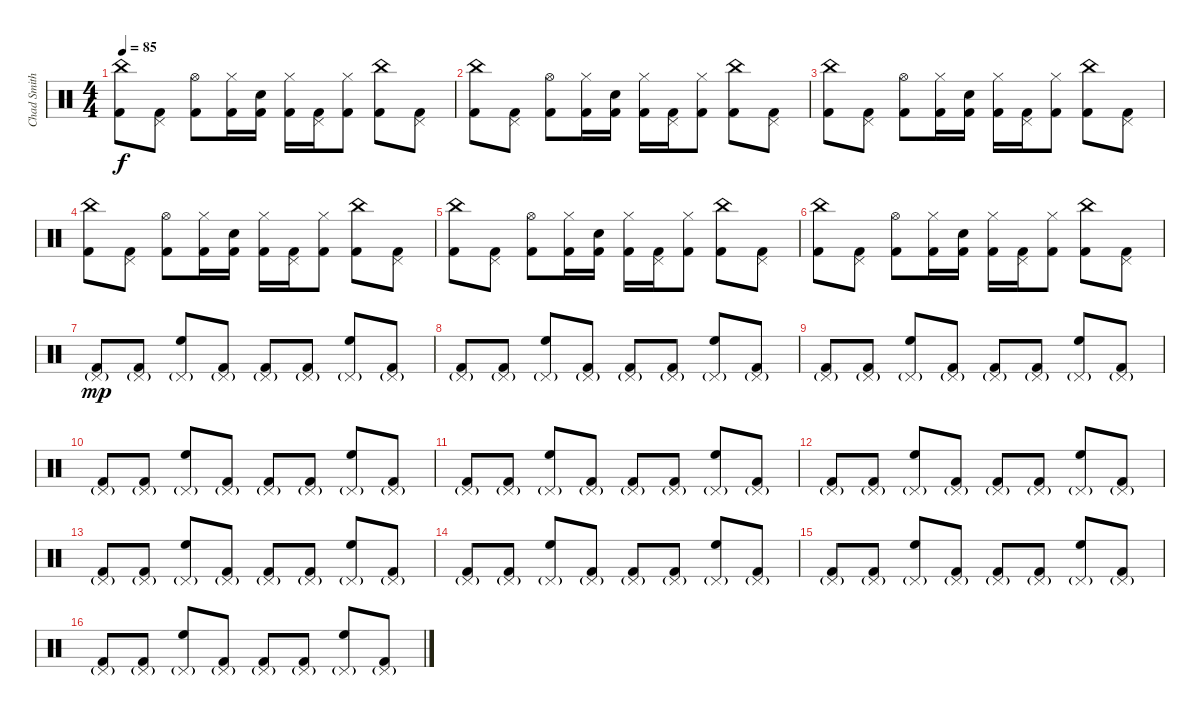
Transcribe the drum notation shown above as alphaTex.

\track ("Chad Smith - Drums" "Chad Smith") {instrument percussion}
\staff {score}
\articulation defaults
\ts (4 4)
\tempo 85
\clef neutral
\ks c
("China (hit)" "Kick (hit) 2").8{dy f} ("Pedal Hi-Hat (hit)" "Kick (hit) 2").8 ("Hi-Hat (open)" "Kick (hit) 2").8 ("Hi-Hat (closed)" "Kick (hit) 2").16 ("Electric Snare (hit)" "Kick (hit) 2").16 ("Hi-Hat (closed)" "Kick (hit) 2").16 ("Pedal Hi-Hat (hit)" "Kick (hit) 2").16 ("Hi-Hat (closed)" "Kick (hit) 2").8 ("China (hit)" "Kick (hit) 2").8 ("Pedal Hi-Hat (hit)" "Kick (hit) 2").8 |
("China (hit)" "Kick (hit) 2").8 ("Pedal Hi-Hat (hit)" "Kick (hit) 2").8 ("Hi-Hat (open)" "Kick (hit) 2").8 ("Hi-Hat (closed)" "Kick (hit) 2").16 ("Electric Snare (hit)" "Kick (hit) 2").16 ("Hi-Hat (closed)" "Kick (hit) 2").16 ("Pedal Hi-Hat (hit)" "Kick (hit) 2").16 ("Hi-Hat (closed)" "Kick (hit) 2").8 ("China (hit)" "Kick (hit) 2").8 ("Pedal Hi-Hat (hit)" "Kick (hit) 2").8 |
("China (hit)" "Kick (hit) 2").8 ("Pedal Hi-Hat (hit)" "Kick (hit) 2").8 ("Hi-Hat (open)" "Kick (hit) 2").8 ("Hi-Hat (closed)" "Kick (hit) 2").16 ("Electric Snare (hit)" "Kick (hit) 2").16 ("Hi-Hat (closed)" "Kick (hit) 2").16 ("Pedal Hi-Hat (hit)" "Kick (hit) 2").16 ("Hi-Hat (closed)" "Kick (hit) 2").8 ("China (hit)" "Kick (hit) 2").8 ("Pedal Hi-Hat (hit)" "Kick (hit) 2").8 |
("China (hit)" "Kick (hit) 2").8 ("Pedal Hi-Hat (hit)" "Kick (hit) 2").8 ("Hi-Hat (open)" "Kick (hit) 2").8 ("Hi-Hat (closed)" "Kick (hit) 2").16 ("Electric Snare (hit)" "Kick (hit) 2").16 ("Hi-Hat (closed)" "Kick (hit) 2").16 ("Pedal Hi-Hat (hit)" "Kick (hit) 2").16 ("Hi-Hat (closed)" "Kick (hit) 2").8 ("China (hit)" "Kick (hit) 2").8 ("Pedal Hi-Hat (hit)" "Kick (hit) 2").8 |
("China (hit)" "Kick (hit) 2").8 ("Pedal Hi-Hat (hit)" "Kick (hit) 2").8 ("Hi-Hat (open)" "Kick (hit) 2").8 ("Hi-Hat (closed)" "Kick (hit) 2").16 ("Electric Snare (hit)" "Kick (hit) 2").16 ("Hi-Hat (closed)" "Kick (hit) 2").16 ("Pedal Hi-Hat (hit)" "Kick (hit) 2").16 ("Hi-Hat (closed)" "Kick (hit) 2").8 ("China (hit)" "Kick (hit) 2").8 ("Pedal Hi-Hat (hit)" "Kick (hit) 2").8 |
("China (hit)" "Kick (hit) 2").8 ("Pedal Hi-Hat (hit)" "Kick (hit) 2").8 ("Hi-Hat (open)" "Kick (hit) 2").8 ("Hi-Hat (closed)" "Kick (hit) 2").16 ("Electric Snare (hit)" "Kick (hit) 2").16 ("Hi-Hat (closed)" "Kick (hit) 2").16 ("Pedal Hi-Hat (hit)" "Kick (hit) 2").16 ("Hi-Hat (closed)" "Kick (hit) 2").8 ("China (hit)" "Kick (hit) 2").8 ("Pedal Hi-Hat (hit)" "Kick (hit) 2").8 |
("Pedal Hi-Hat (hit)"{g} "Kick (hit) 2").8{dy mp} ("Pedal Hi-Hat (hit)"{g} "Kick (hit) 2").8 ("Pedal Hi-Hat (hit)"{g} "High Floor Tom (hit)").8 ("Pedal Hi-Hat (hit)"{g} "Kick (hit) 2").8 ("Pedal Hi-Hat (hit)"{g} "Kick (hit) 2").8 ("Pedal Hi-Hat (hit)"{g} "Kick (hit) 2").8 ("Pedal Hi-Hat (hit)"{g} "High Floor Tom (hit)").8 ("Pedal Hi-Hat (hit)"{g} "Kick (hit) 2").8 |
("Pedal Hi-Hat (hit)"{g} "Kick (hit) 2").8 ("Pedal Hi-Hat (hit)"{g} "Kick (hit) 2").8 ("Pedal Hi-Hat (hit)"{g} "High Floor Tom (hit)").8 ("Pedal Hi-Hat (hit)"{g} "Kick (hit) 2").8 ("Pedal Hi-Hat (hit)"{g} "Kick (hit) 2").8 ("Pedal Hi-Hat (hit)"{g} "Kick (hit) 2").8 ("Pedal Hi-Hat (hit)"{g} "High Floor Tom (hit)").8 ("Pedal Hi-Hat (hit)"{g} "Kick (hit) 2").8 |
("Pedal Hi-Hat (hit)"{g} "Kick (hit) 2").8 ("Pedal Hi-Hat (hit)"{g} "Kick (hit) 2").8 ("Pedal Hi-Hat (hit)"{g} "High Floor Tom (hit)").8 ("Pedal Hi-Hat (hit)"{g} "Kick (hit) 2").8 ("Pedal Hi-Hat (hit)"{g} "Kick (hit) 2").8 ("Pedal Hi-Hat (hit)"{g} "Kick (hit) 2").8 ("Pedal Hi-Hat (hit)"{g} "High Floor Tom (hit)").8 ("Pedal Hi-Hat (hit)"{g} "Kick (hit) 2").8 |
("Pedal Hi-Hat (hit)"{g} "Kick (hit) 2").8 ("Pedal Hi-Hat (hit)"{g} "Kick (hit) 2").8 ("Pedal Hi-Hat (hit)"{g} "High Floor Tom (hit)").8 ("Pedal Hi-Hat (hit)"{g} "Kick (hit) 2").8 ("Pedal Hi-Hat (hit)"{g} "Kick (hit) 2").8 ("Pedal Hi-Hat (hit)"{g} "Kick (hit) 2").8 ("Pedal Hi-Hat (hit)"{g} "High Floor Tom (hit)").8 ("Pedal Hi-Hat (hit)"{g} "Kick (hit) 2").8 |
("Pedal Hi-Hat (hit)"{g} "Kick (hit) 2").8 ("Pedal Hi-Hat (hit)"{g} "Kick (hit) 2").8 ("Pedal Hi-Hat (hit)"{g} "High Floor Tom (hit)").8 ("Pedal Hi-Hat (hit)"{g} "Kick (hit) 2").8 ("Pedal Hi-Hat (hit)"{g} "Kick (hit) 2").8 ("Pedal Hi-Hat (hit)"{g} "Kick (hit) 2").8 ("Pedal Hi-Hat (hit)"{g} "High Floor Tom (hit)").8 ("Pedal Hi-Hat (hit)"{g} "Kick (hit) 2").8 |
("Pedal Hi-Hat (hit)"{g} "Kick (hit) 2").8 ("Pedal Hi-Hat (hit)"{g} "Kick (hit) 2").8 ("Pedal Hi-Hat (hit)"{g} "High Floor Tom (hit)").8 ("Pedal Hi-Hat (hit)"{g} "Kick (hit) 2").8 ("Pedal Hi-Hat (hit)"{g} "Kick (hit) 2").8 ("Pedal Hi-Hat (hit)"{g} "Kick (hit) 2").8 ("Pedal Hi-Hat (hit)"{g} "High Floor Tom (hit)").8 ("Pedal Hi-Hat (hit)"{g} "Kick (hit) 2").8 |
("Pedal Hi-Hat (hit)"{g} "Kick (hit) 2").8 ("Pedal Hi-Hat (hit)"{g} "Kick (hit) 2").8 ("Pedal Hi-Hat (hit)"{g} "High Floor Tom (hit)").8 ("Pedal Hi-Hat (hit)"{g} "Kick (hit) 2").8 ("Pedal Hi-Hat (hit)"{g} "Kick (hit) 2").8 ("Pedal Hi-Hat (hit)"{g} "Kick (hit) 2").8 ("Pedal Hi-Hat (hit)"{g} "High Floor Tom (hit)").8 ("Pedal Hi-Hat (hit)"{g} "Kick (hit) 2").8 |
("Pedal Hi-Hat (hit)"{g} "Kick (hit) 2").8 ("Pedal Hi-Hat (hit)"{g} "Kick (hit) 2").8 ("Pedal Hi-Hat (hit)"{g} "High Floor Tom (hit)").8 ("Pedal Hi-Hat (hit)"{g} "Kick (hit) 2").8 ("Pedal Hi-Hat (hit)"{g} "Kick (hit) 2").8 ("Pedal Hi-Hat (hit)"{g} "Kick (hit) 2").8 ("Pedal Hi-Hat (hit)"{g} "High Floor Tom (hit)").8 ("Pedal Hi-Hat (hit)"{g} "Kick (hit) 2").8 |
("Pedal Hi-Hat (hit)"{g} "Kick (hit) 2").8 ("Pedal Hi-Hat (hit)"{g} "Kick (hit) 2").8 ("Pedal Hi-Hat (hit)"{g} "High Floor Tom (hit)").8 ("Pedal Hi-Hat (hit)"{g} "Kick (hit) 2").8 ("Pedal Hi-Hat (hit)"{g} "Kick (hit) 2").8 ("Pedal Hi-Hat (hit)"{g} "Kick (hit) 2").8 ("Pedal Hi-Hat (hit)"{g} "High Floor Tom (hit)").8 ("Pedal Hi-Hat (hit)"{g} "Kick (hit) 2").8 |
("Pedal Hi-Hat (hit)"{g} "Kick (hit) 2").8 ("Pedal Hi-Hat (hit)"{g} "Kick (hit) 2").8 ("Pedal Hi-Hat (hit)"{g} "High Floor Tom (hit)").8 ("Pedal Hi-Hat (hit)"{g} "Kick (hit) 2").8 ("Pedal Hi-Hat (hit)"{g} "Kick (hit) 2").8 ("Pedal Hi-Hat (hit)"{g} "Kick (hit) 2").8 ("Pedal Hi-Hat (hit)"{g} "High Floor Tom (hit)").8 ("Pedal Hi-Hat (hit)"{g} "Kick (hit) 2").8
